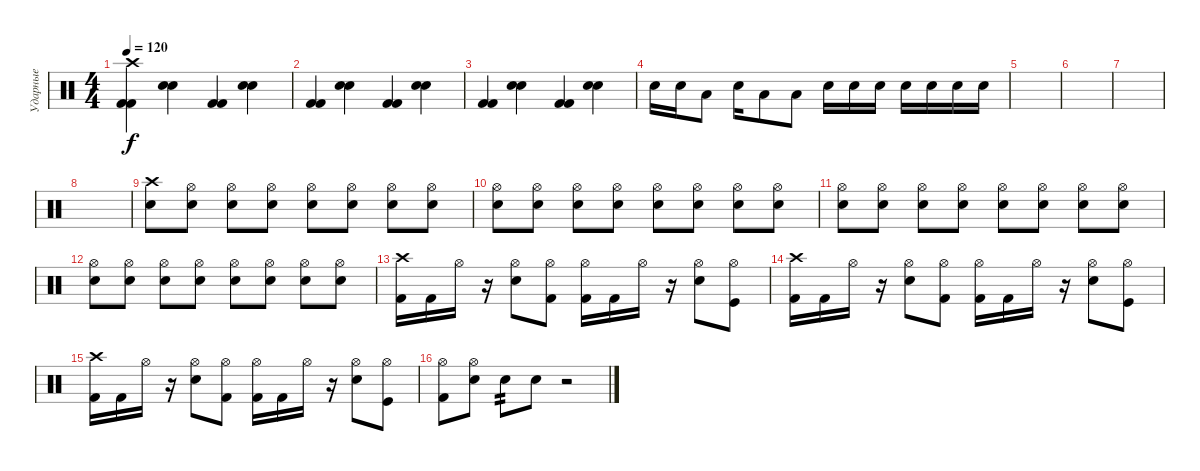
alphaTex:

\track ("Ударные" "Ударные") {instrument percussion}
\staff {score}
\articulation defaults
\ts (4 4)
\tempo 120
\clef neutral
\ks c
("Crash high (hit)" "Kick (hit) 2" "Kick (hit) 2").4{dy f} ("Electric Snare (hit)" "Electric Snare (hit)").4 ("Kick (hit) 2" "Kick (hit) 2").4 ("Electric Snare (hit)" "Electric Snare (hit)").4 |
("Kick (hit) 2" "Kick (hit) 2").4 ("Electric Snare (hit)" "Electric Snare (hit)").4 ("Kick (hit) 2" "Kick (hit) 2").4 ("Electric Snare (hit)" "Electric Snare (hit)").4 |
("Kick (hit) 2" "Kick (hit) 2").4 ("Electric Snare (hit)" "Electric Snare (hit)").4 ("Kick (hit) 2" "Kick (hit) 2").4 ("Electric Snare (hit)" "Electric Snare (hit)").4 |
"Electric Snare (hit)".16 "Electric Snare (hit)".16 "Low Floor Tom (hit)".8 "Electric Snare (hit)".16 "Low Floor Tom (hit)".8 "Low Floor Tom (hit)".8 "Electric Snare (hit)".16 "Electric Snare (hit)".16 "Electric Snare (hit)".16 "Electric Snare (hit)".16 "Electric Snare (hit)".16 "Electric Snare (hit)".16 "Electric Snare (hit)".16 |
|
|
|
|
("Crash high (hit)" "Electric Snare (hit)").8 ("Electric Snare (hit)" "Hi-Hat (open)").8 ("Hi-Hat (open)" "Electric Snare (hit)").8 ("Electric Snare (hit)" "Hi-Hat (open)").8 ("Hi-Hat (open)" "Electric Snare (hit)").8 ("Electric Snare (hit)" "Hi-Hat (open)").8 ("Hi-Hat (open)" "Electric Snare (hit)").8 ("Electric Snare (hit)" "Hi-Hat (open)").8 |
("Hi-Hat (open)" "Electric Snare (hit)").8 ("Electric Snare (hit)" "Hi-Hat (open)").8 ("Hi-Hat (open)" "Electric Snare (hit)").8 ("Electric Snare (hit)" "Hi-Hat (open)").8 ("Hi-Hat (open)" "Electric Snare (hit)").8 ("Electric Snare (hit)" "Hi-Hat (open)").8 ("Hi-Hat (open)" "Electric Snare (hit)").8 ("Electric Snare (hit)" "Hi-Hat (open)").8 |
("Hi-Hat (open)" "Electric Snare (hit)").8 ("Electric Snare (hit)" "Hi-Hat (open)").8 ("Hi-Hat (open)" "Electric Snare (hit)").8 ("Electric Snare (hit)" "Hi-Hat (open)").8 ("Hi-Hat (open)" "Electric Snare (hit)").8 ("Electric Snare (hit)" "Hi-Hat (open)").8 ("Hi-Hat (open)" "Electric Snare (hit)").8 ("Electric Snare (hit)" "Hi-Hat (open)").8 |
("Hi-Hat (open)" "Electric Snare (hit)").8 ("Electric Snare (hit)" "Hi-Hat (open)").8 ("Hi-Hat (open)" "Electric Snare (hit)").8 ("Electric Snare (hit)" "Hi-Hat (open)").8 ("Hi-Hat (open)" "Electric Snare (hit)").8 ("Electric Snare (hit)" "Hi-Hat (open)").8 ("Hi-Hat (open)" "Electric Snare (hit)").8 ("Electric Snare (hit)" "Hi-Hat (open)").8 |
("Kick (hit) 2" "Crash high (hit)").16 "Kick (hit) 2".16 "Hi-Hat (open)".16 r.16 ("Electric Snare (hit)" "Hi-Hat (open)").8 ("Kick (hit) 2" "Hi-Hat (open)").8 ("Kick (hit) 2" "Hi-Hat (open)").16 "Kick (hit) 2".16 "Hi-Hat (open)".16 r.16 ("Electric Snare (hit)" "Hi-Hat (open)").8 ("Kick (hit)" "Hi-Hat (open)").8 |
("Kick (hit) 2" "Crash high (hit)").16 "Kick (hit) 2".16 "Hi-Hat (open)".16 r.16 ("Electric Snare (hit)" "Hi-Hat (open)").8 ("Kick (hit) 2" "Hi-Hat (open)").8 ("Kick (hit) 2" "Hi-Hat (open)").16 "Kick (hit) 2".16 "Hi-Hat (open)".16 r.16 ("Electric Snare (hit)" "Hi-Hat (open)").8 ("Kick (hit)" "Hi-Hat (open)").8 |
("Kick (hit) 2" "Crash high (hit)").16 "Kick (hit) 2".16 "Hi-Hat (open)".16 r.16 ("Electric Snare (hit)" "Hi-Hat (open)").8 ("Kick (hit) 2" "Hi-Hat (open)").8 ("Kick (hit) 2" "Hi-Hat (open)").16 "Kick (hit) 2".16 "Hi-Hat (open)".16 r.16 ("Electric Snare (hit)" "Hi-Hat (open)").8 ("Kick (hit)" "Hi-Hat (open)").8 |
("Hi-Hat (open)" "Kick (hit) 2").8 ("Electric Snare (hit)" "Hi-Hat (open)").8 "Electric Snare (hit)".8{tp 2} "Electric Snare (hit)".8 r.2
